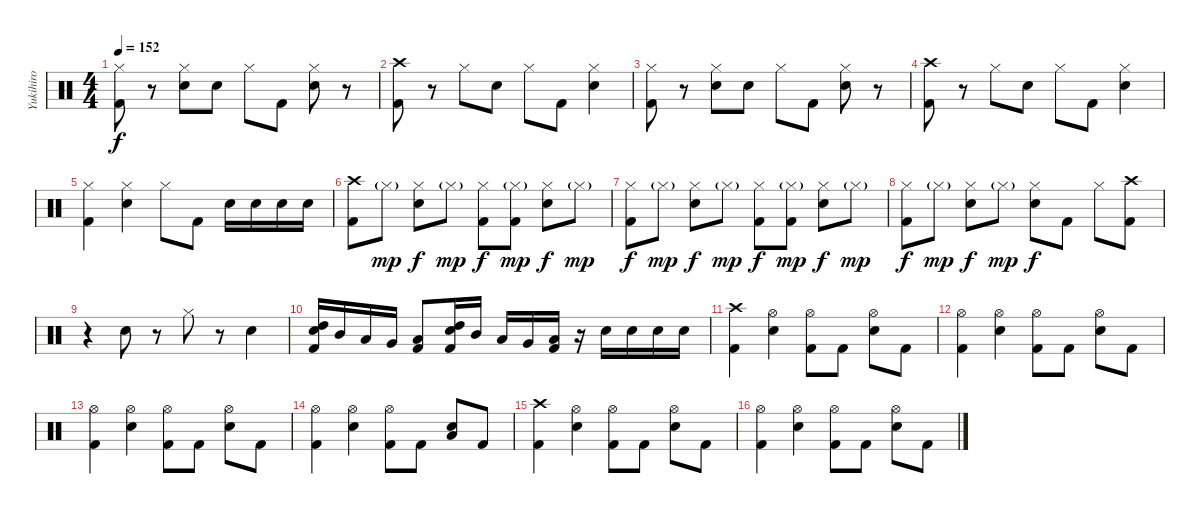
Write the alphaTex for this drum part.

\track ("Yukihiro" "Yukihiro") {instrument percussion}
\staff {score}
\articulation defaults
\ts (4 4)
\tempo 152
\clef neutral
\ks c
("Hi-Hat (closed)" "Kick (hit) 2").8{dy f} r.8 ("Hi-Hat (closed)" "Electric Snare (hit)").8 "Electric Snare (hit)".8 "Hi-Hat (closed)".8 "Kick (hit) 2".8 ("Hi-Hat (closed)" "Electric Snare (hit)").8 r.8 |
("Crash high (hit)" "Kick (hit) 2").8 r.8 "Hi-Hat (closed)".8 "Electric Snare (hit)".8 "Hi-Hat (closed)".8 "Kick (hit) 2".8 ("Hi-Hat (closed)" "Electric Snare (hit)").4 |
("Hi-Hat (closed)" "Kick (hit) 2").8 r.8 ("Hi-Hat (closed)" "Electric Snare (hit)").8 "Electric Snare (hit)".8 "Hi-Hat (closed)".8 "Kick (hit) 2".8 ("Hi-Hat (closed)" "Electric Snare (hit)").8 r.8 |
("Crash high (hit)" "Kick (hit) 2").8 r.8 "Hi-Hat (closed)".8 "Electric Snare (hit)".8 "Hi-Hat (closed)".8 "Kick (hit) 2".8 ("Hi-Hat (closed)" "Electric Snare (hit)").4 |
("Hi-Hat (closed)" "Kick (hit) 2").4 ("Hi-Hat (closed)" "Electric Snare (hit)").4 "Hi-Hat (closed)".8 "Kick (hit) 2".8 "Electric Snare (hit)".16 "Electric Snare (hit)".16 "Electric Snare (hit)".16 "Electric Snare (hit)".16 |
("Crash high (hit)" "Kick (hit) 2").8 "Hi-Hat (closed)"{g}.8{dy mp} ("Hi-Hat (closed)" "Electric Snare (hit)").8{dy f} "Hi-Hat (closed)"{g}.8{dy mp} ("Hi-Hat (closed)" "Kick (hit) 2").8{dy f} ("Hi-Hat (closed)"{g} "Kick (hit) 2").8{dy mp} ("Hi-Hat (closed)" "Electric Snare (hit)").8{dy f} "Hi-Hat (closed)"{g}.8{dy mp} |
("Hi-Hat (closed)" "Kick (hit) 2").8{dy f} "Hi-Hat (closed)"{g}.8{dy mp} ("Hi-Hat (closed)" "Electric Snare (hit)").8{dy f} "Hi-Hat (closed)"{g}.8{dy mp} ("Hi-Hat (closed)" "Kick (hit) 2").8{dy f} ("Hi-Hat (closed)"{g} "Kick (hit) 2").8{dy mp} ("Hi-Hat (closed)" "Electric Snare (hit)").8{dy f} "Hi-Hat (closed)"{g}.8{dy mp} |
("Hi-Hat (closed)" "Kick (hit) 2").8{dy f} "Hi-Hat (closed)"{g}.8{dy mp} ("Hi-Hat (closed)" "Electric Snare (hit)").8{dy f} "Hi-Hat (closed)"{g}.8{dy mp} ("Hi-Hat (closed)" "Electric Snare (hit)").8{dy f} "Kick (hit) 2".8 "Hi-Hat (closed)".8 ("Crash high (hit)" "Kick (hit) 2").8 |
r.4 "Electric Snare (hit)".8 r.8 "Hi-Hat (closed)".8 r.8 "Electric Snare (hit)".4 |
("High Tom (hit)" "Electric Snare (hit)" "Kick (hit) 2").16 "Mid Tom (hit)".16 "Low Tom (hit)".16 "Very Low Tom (hit)".16 ("Low Floor Tom (hit)" "Kick (hit) 2").8 ("High Tom (hit)" "Electric Snare (hit)" "Kick (hit) 2").16 "Mid Tom (hit)".16 "Low Tom (hit)".16 "Very Low Tom (hit)".16 ("Low Floor Tom (hit)" "Kick (hit) 2").16 r.16 "Electric Snare (hit)".16 "Electric Snare (hit)".16 "Electric Snare (hit)".16 "Electric Snare (hit)".16 |
("Crash high (hit)" "Kick (hit) 2").4 ("Hi-Hat (open)" "Electric Snare (hit)").4 ("Hi-Hat (open)" "Kick (hit) 2").8 "Kick (hit) 2".8 ("Hi-Hat (open)" "Electric Snare (hit)").8 "Kick (hit) 2".8 |
("Hi-Hat (open)" "Kick (hit) 2").4 ("Hi-Hat (open)" "Electric Snare (hit)").4 ("Hi-Hat (open)" "Kick (hit) 2").8 "Kick (hit) 2".8 ("Hi-Hat (open)" "Electric Snare (hit)").8 "Kick (hit) 2".8 |
("Hi-Hat (open)" "Kick (hit) 2").4 ("Hi-Hat (open)" "Electric Snare (hit)").4 ("Hi-Hat (open)" "Kick (hit) 2").8 "Kick (hit) 2".8 ("Hi-Hat (open)" "Electric Snare (hit)").8 "Kick (hit) 2".8 |
("Hi-Hat (open)" "Kick (hit) 2").4 ("Hi-Hat (open)" "Electric Snare (hit)").4 ("Hi-Hat (open)" "Kick (hit) 2").8 "Kick (hit) 2".8 ("Low Tom (hit)" "Electric Snare (hit)").8 "Kick (hit) 2".8 |
("Crash high (hit)" "Kick (hit) 2").4 ("Hi-Hat (open)" "Electric Snare (hit)").4 ("Hi-Hat (open)" "Kick (hit) 2").8 "Kick (hit) 2".8 ("Hi-Hat (open)" "Electric Snare (hit)").8 "Kick (hit) 2".8 |
("Hi-Hat (open)" "Kick (hit) 2").4 ("Hi-Hat (open)" "Electric Snare (hit)").4 ("Hi-Hat (open)" "Kick (hit) 2").8 "Kick (hit) 2".8 ("Hi-Hat (open)" "Electric Snare (hit)").8 "Kick (hit) 2".8
